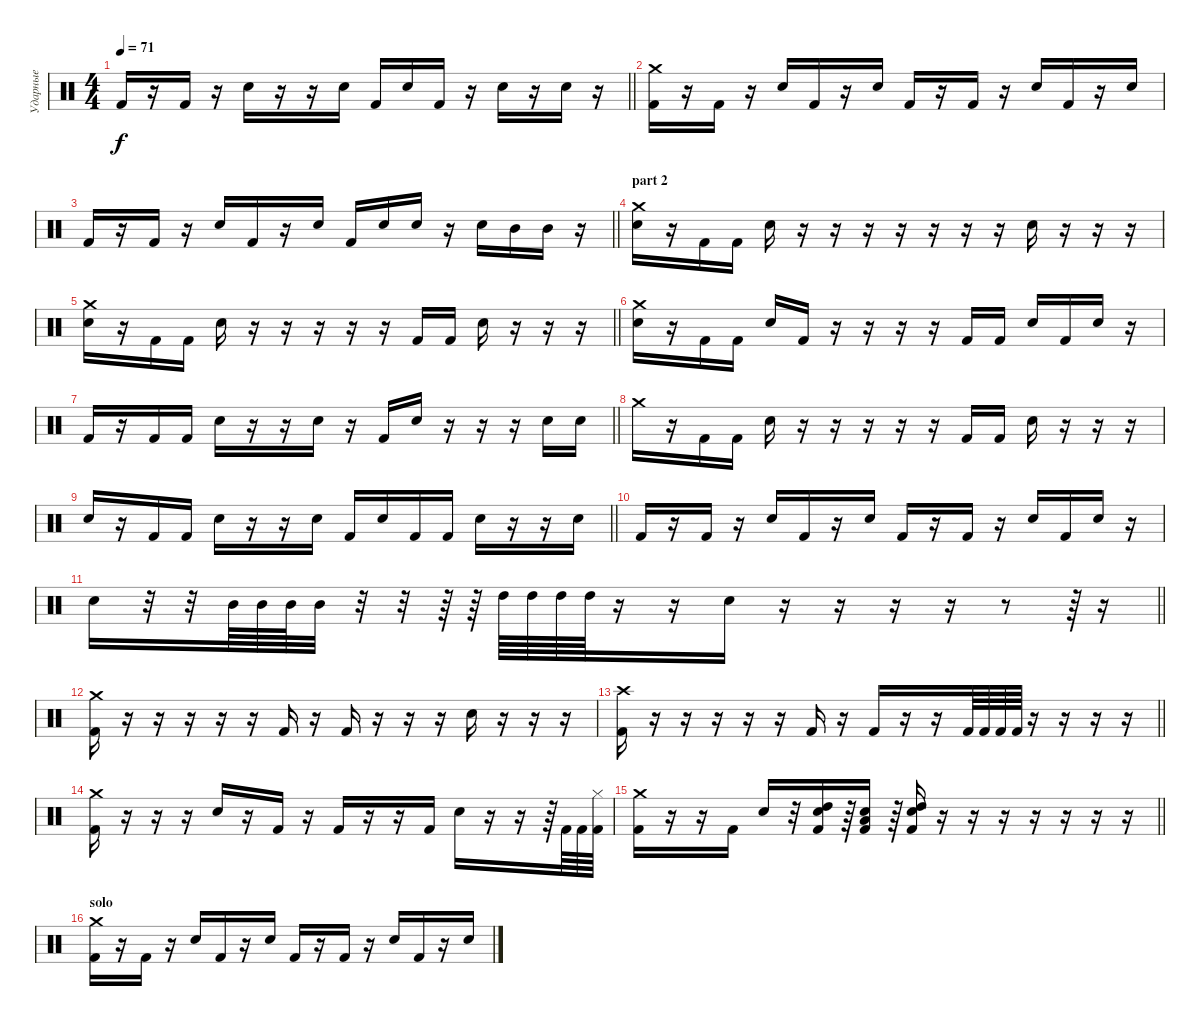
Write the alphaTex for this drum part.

\track ("Ударные" "Ударные") {instrument percussion}
\staff
\articulation defaults
\ts (4 4)
\tempo 71
\clef neutral
\barLineRight lightlight
\ks c "Kick (hit) 2".16{dy f}
r.16 "Kick (hit) 2".16 r.16 "Snare (hit) 2".16 r.16 r.16 "Snare (hit) 2".16 "Kick (hit) 2".16 "Snare (hit) 2".16 "Kick (hit) 2".16 r.16 "Snare (hit) 2".16 r.16 "Snare (hit) 2".16 r.16 |
("Kick (hit) 2" "Crash medium (hit)").16 r.16 "Kick (hit) 2".16 r.16 "Snare (hit) 2".16 "Kick (hit) 2".16 r.16 "Snare (hit) 2".16 "Kick (hit) 2".16 r.16 "Kick (hit) 2".16 r.16 "Snare (hit) 2".16 "Kick (hit) 2".16 r.16 "Snare (hit) 2".16 |
\barLineRight lightlight "Kick (hit) 2".16
r.16 "Kick (hit) 2".16 r.16 "Snare (hit) 2".16 "Kick (hit) 2".16 r.16 "Snare (hit) 2".16 "Kick (hit) 2".16 "Snare (hit) 2".16 "Snare (hit) 2".16 r.16 "Snare (hit) 2".16 "Mid Tom (hit)".16 "Mid Tom (hit)".16 r.16 |
\section ("" "part 2")
("Snare (hit) 2" "Crash medium (hit)").16 r.16 "Kick (hit) 2".16 "Kick (hit) 2".16 "Snare (hit) 2".16 r.16 r.16 r.16 r.16 r.16 r.16 r.16 "Snare (hit) 2".16 r.16 r.16 r.16 |
\barLineRight lightlight
("Snare (hit) 2" "Crash medium (hit)").16 r.16 "Kick (hit) 2".16 "Kick (hit) 2".16 "Snare (hit) 2".16 r.16 r.16 r.16 r.16 r.16 "Kick (hit) 2".16 "Kick (hit) 2".16 "Snare (hit) 2".16 r.16 r.16 r.16 |
("Snare (hit) 2" "Crash medium (hit)").16 r.16 "Kick (hit) 2".16 "Kick (hit) 2".16 "Snare (hit) 2".16 "Kick (hit) 2".16 r.16 r.16 r.16 r.16 "Kick (hit) 2".16 "Kick (hit) 2".16 "Snare (hit) 2".16 "Kick (hit) 2".16 "Snare (hit) 2".16 r.16 |
\barLineRight lightlight "Kick (hit) 2".16
r.16 "Kick (hit) 2".16 "Kick (hit) 2".16 "Snare (hit) 2".16 r.16 r.16 "Snare (hit) 2".16 r.16 "Kick (hit) 2".16 "Snare (hit) 2".16 r.16 r.16 r.16 "Snare (hit) 2".16 "Snare (hit) 2".16 |
"Crash medium (hit)".16 r.16 "Kick (hit) 2".16 "Kick (hit) 2".16 "Snare (hit) 2".16 r.16 r.16 r.16 r.16 r.16 "Kick (hit) 2".16 "Kick (hit) 2".16 "Snare (hit) 2".16 r.16 r.16 r.16 |
\barLineRight lightlight "Snare (hit) 2".16
r.16 "Kick (hit) 2".16 "Kick (hit) 2".16 "Snare (hit) 2".16 r.16 r.16 "Snare (hit) 2".16 "Kick (hit) 2".16 "Snare (hit) 2".16 "Kick (hit) 2".16 "Kick (hit) 2".16 "Snare (hit) 2".16 r.16 r.16 "Snare (hit) 2".16 |
"Kick (hit) 2".16 r.16 "Kick (hit) 2".16 r.16 "Snare (hit) 2".16 "Kick (hit) 2".16 r.16 "Snare (hit) 2".16 "Kick (hit) 2".16 r.16 "Kick (hit) 2".16 r.16 "Snare (hit) 2".16 "Kick (hit) 2".16 "Snare (hit) 2".16 r.16 |
\barLineRight lightlight "Snare (hit) 2".16
r.32 r.32 "Mid Tom (hit)".64 "Mid Tom (hit)".64 "Mid Tom (hit)".64 "Mid Tom (hit)".32 r.32 r.32 r.64 r.64 "High Tom (hit)".64 "High Tom (hit)".64 "High Tom (hit)".64 "High Tom (hit)".64 r.16 r.16 "Snare (hit) 2".16 r.16 r.16 r.16 r.16 r.8 r.64 r.16 |
("Kick (hit) 2" "Crash medium (hit)").16 r.16 r.16 r.16 r.16 r.16 "Kick (hit) 2".16 r.16 "Kick (hit) 2".16 r.16 r.16 r.16 "Snare (hit) 2".16 r.16 r.16 r.16 |
\barLineRight lightlight
("Kick (hit) 2" "Crash high (hit)").16 r.16 r.16 r.16 r.16 r.16 "Kick (hit) 2".16 r.16 "Kick (hit) 2".16 r.16 r.16 "Kick (hit) 2".64 "Kick (hit) 2".64 "Kick (hit) 2".64 "Kick (hit) 2".64 r.16 r.16 r.16 r.16 |
("Kick (hit) 2" "Crash medium (hit)").16 r.16 r.16 r.16 "Snare (hit) 2".16 r.16 "Kick (hit) 2".16 r.16 "Kick (hit) 2".16 r.16 r.16 "Kick (hit) 2".16 "Snare (hit) 2".16 r.16 r.16 r.64 "Kick (hit) 2".64 "Kick (hit) 2".64 ("Kick (hit) 2" "Hi-Hat (closed)").64 |
\barLineRight lightlight
("Kick (hit) 2" "Crash medium (hit)").16 r.16 r.16 "Kick (hit) 2".16 "Snare (hit) 2".16 r.32 ("Kick (hit) 2" "High Tom (hit)" "Snare (hit) 2").16 r.64 ("Kick (hit) 2" "Low Tom (hit)" "Snare (hit) 2").16 r.64 ("Kick (hit) 2" "High Tom (hit)" "Snare (hit) 2").16 r.16 r.16 r.16 r.16 r.16 r.16 r.16 |
\section ("" "solo")
("Kick (hit) 2" "Crash medium (hit)").16 r.16 "Kick (hit) 2".16 r.16 "Snare (hit) 2".16 "Kick (hit) 2".16 r.16 "Snare (hit) 2".16 "Kick (hit) 2".16 r.16 "Kick (hit) 2".16 r.16 "Snare (hit) 2".16 "Kick (hit) 2".16 r.16 "Snare (hit) 2".16
